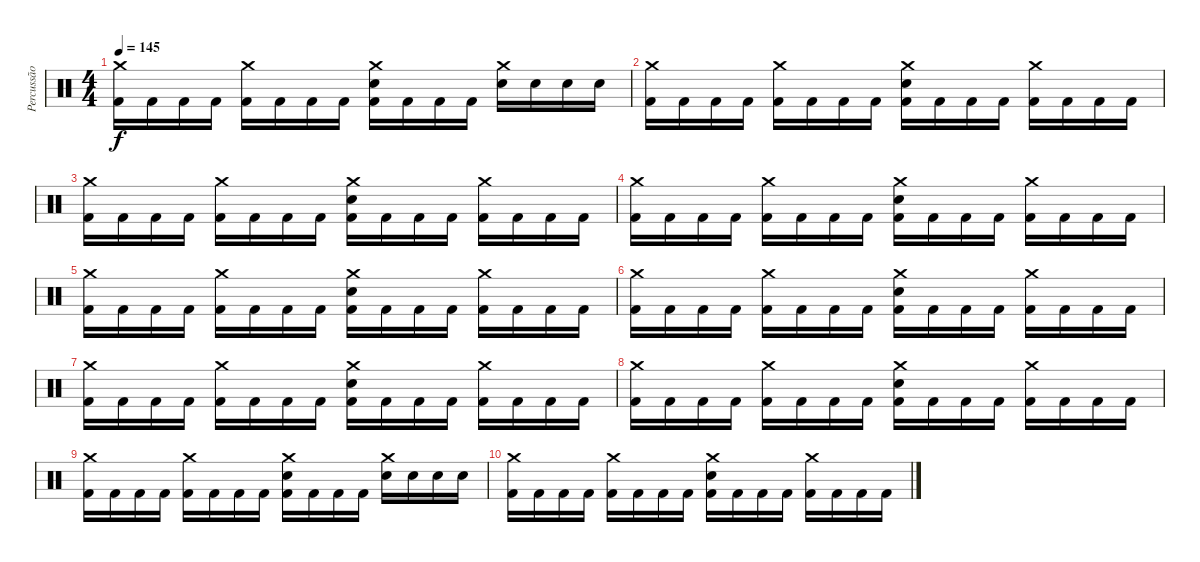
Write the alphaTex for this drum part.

\track ("Percussão" "Percussão") {instrument percussion}
\staff {score}
\articulation defaults
\ts (4 4)
\tempo 145
\clef neutral
\ks c
("Crash medium (hit)" "Kick (hit) 2").16{dy f} "Kick (hit) 2".16 "Kick (hit) 2".16 "Kick (hit) 2".16 ("Crash medium (hit)" "Kick (hit) 2").16 "Kick (hit) 2".16 "Kick (hit) 2".16 "Kick (hit) 2".16 ("Crash medium (hit)" "Electric Snare (hit)" "Kick (hit) 2").16 "Kick (hit) 2".16 "Kick (hit) 2".16 "Kick (hit) 2".16 ("Crash medium (hit)" "Snare (hit)").16 "Snare (hit)".16 "Snare (hit)".16 "Snare (hit)".16 |
("Crash medium (hit)" "Kick (hit) 2").16 "Kick (hit) 2".16 "Kick (hit) 2".16 "Kick (hit) 2".16 ("Crash medium (hit)" "Kick (hit) 2").16 "Kick (hit) 2".16 "Kick (hit) 2".16 "Kick (hit) 2".16 ("Crash medium (hit)" "Electric Snare (hit)" "Kick (hit) 2").16 "Kick (hit) 2".16 "Kick (hit) 2".16 "Kick (hit) 2".16 ("Crash medium (hit)" "Kick (hit) 2").16 "Kick (hit) 2".16 "Kick (hit) 2".16 "Kick (hit) 2".16 |
("Crash medium (hit)" "Kick (hit) 2").16 "Kick (hit) 2".16 "Kick (hit) 2".16 "Kick (hit) 2".16 ("Crash medium (hit)" "Kick (hit) 2").16 "Kick (hit) 2".16 "Kick (hit) 2".16 "Kick (hit) 2".16 ("Crash medium (hit)" "Electric Snare (hit)" "Kick (hit) 2").16 "Kick (hit) 2".16 "Kick (hit) 2".16 "Kick (hit) 2".16 ("Crash medium (hit)" "Kick (hit) 2").16 "Kick (hit) 2".16 "Kick (hit) 2".16 "Kick (hit) 2".16 |
("Crash medium (hit)" "Kick (hit) 2").16 "Kick (hit) 2".16 "Kick (hit) 2".16 "Kick (hit) 2".16 ("Crash medium (hit)" "Kick (hit) 2").16 "Kick (hit) 2".16 "Kick (hit) 2".16 "Kick (hit) 2".16 ("Crash medium (hit)" "Electric Snare (hit)" "Kick (hit) 2").16 "Kick (hit) 2".16 "Kick (hit) 2".16 "Kick (hit) 2".16 ("Crash medium (hit)" "Kick (hit) 2").16 "Kick (hit) 2".16 "Kick (hit) 2".16 "Kick (hit) 2".16 |
("Crash medium (hit)" "Kick (hit) 2").16 "Kick (hit) 2".16 "Kick (hit) 2".16 "Kick (hit) 2".16 ("Crash medium (hit)" "Kick (hit) 2").16 "Kick (hit) 2".16 "Kick (hit) 2".16 "Kick (hit) 2".16 ("Crash medium (hit)" "Electric Snare (hit)" "Kick (hit) 2").16 "Kick (hit) 2".16 "Kick (hit) 2".16 "Kick (hit) 2".16 ("Crash medium (hit)" "Kick (hit) 2").16 "Kick (hit) 2".16 "Kick (hit) 2".16 "Kick (hit) 2".16 |
("Crash medium (hit)" "Kick (hit) 2").16 "Kick (hit) 2".16 "Kick (hit) 2".16 "Kick (hit) 2".16 ("Crash medium (hit)" "Kick (hit) 2").16 "Kick (hit) 2".16 "Kick (hit) 2".16 "Kick (hit) 2".16 ("Crash medium (hit)" "Electric Snare (hit)" "Kick (hit) 2").16 "Kick (hit) 2".16 "Kick (hit) 2".16 "Kick (hit) 2".16 ("Crash medium (hit)" "Kick (hit) 2").16 "Kick (hit) 2".16 "Kick (hit) 2".16 "Kick (hit) 2".16 |
("Crash medium (hit)" "Kick (hit) 2").16 "Kick (hit) 2".16 "Kick (hit) 2".16 "Kick (hit) 2".16 ("Crash medium (hit)" "Kick (hit) 2").16 "Kick (hit) 2".16 "Kick (hit) 2".16 "Kick (hit) 2".16 ("Crash medium (hit)" "Electric Snare (hit)" "Kick (hit) 2").16 "Kick (hit) 2".16 "Kick (hit) 2".16 "Kick (hit) 2".16 ("Crash medium (hit)" "Kick (hit) 2").16 "Kick (hit) 2".16 "Kick (hit) 2".16 "Kick (hit) 2".16 |
("Crash medium (hit)" "Kick (hit) 2").16 "Kick (hit) 2".16 "Kick (hit) 2".16 "Kick (hit) 2".16 ("Crash medium (hit)" "Kick (hit) 2").16 "Kick (hit) 2".16 "Kick (hit) 2".16 "Kick (hit) 2".16 ("Crash medium (hit)" "Electric Snare (hit)" "Kick (hit) 2").16 "Kick (hit) 2".16 "Kick (hit) 2".16 "Kick (hit) 2".16 ("Crash medium (hit)" "Kick (hit) 2").16 "Kick (hit) 2".16 "Kick (hit) 2".16 "Kick (hit) 2".16 |
("Crash medium (hit)" "Kick (hit) 2").16 "Kick (hit) 2".16 "Kick (hit) 2".16 "Kick (hit) 2".16 ("Crash medium (hit)" "Kick (hit) 2").16 "Kick (hit) 2".16 "Kick (hit) 2".16 "Kick (hit) 2".16 ("Crash medium (hit)" "Electric Snare (hit)" "Kick (hit) 2").16 "Kick (hit) 2".16 "Kick (hit) 2".16 "Kick (hit) 2".16 ("Crash medium (hit)" "Snare (hit)").16 "Snare (hit)".16 "Snare (hit)".16 "Snare (hit)".16 |
("Crash medium (hit)" "Kick (hit) 2").16 "Kick (hit) 2".16 "Kick (hit) 2".16 "Kick (hit) 2".16 ("Crash medium (hit)" "Kick (hit) 2").16 "Kick (hit) 2".16 "Kick (hit) 2".16 "Kick (hit) 2".16 ("Crash medium (hit)" "Electric Snare (hit)" "Kick (hit) 2").16 "Kick (hit) 2".16 "Kick (hit) 2".16 "Kick (hit) 2".16 ("Crash medium (hit)" "Kick (hit) 2").16 "Kick (hit) 2".16 "Kick (hit) 2".16 "Kick (hit) 2".16
